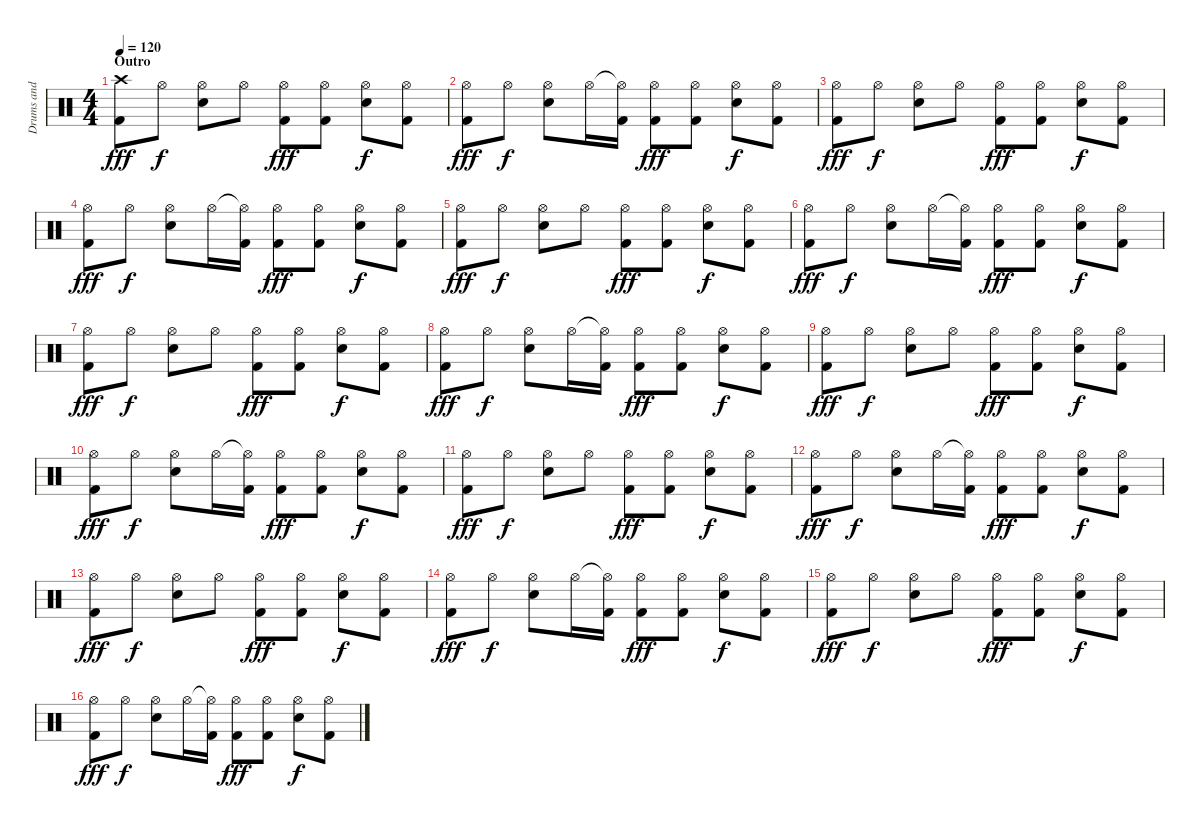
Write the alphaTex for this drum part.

\track ("Drums and Percussion" "Drums and ") {instrument percussion}
\staff {score}
\articulation defaults
\ts (4 4)
\section ("" "Outro")
\tempo 120
\clef neutral
\ks c
("Crash high (hit)" "Kick (hit) 2").8{dy fff} "Hi-Hat (open)".8{dy f} ("Hi-Hat (open)" "Snare (hit) 2").8 "Hi-Hat (open)".8 ("Hi-Hat (open)" "Kick (hit) 2").8{dy fff} ("Hi-Hat (open)" "Kick (hit) 2").8 ("Hi-Hat (open)" "Snare (hit) 2").8{dy f} ("Hi-Hat (open)" "Kick (hit) 2").8 |
("Hi-Hat (open)" "Kick (hit) 2").8{dy fff} "Hi-Hat (open)".8{dy f} ("Hi-Hat (open)" "Snare (hit) 2").8 "Hi-Hat (open)".16 ("Hi-Hat (open)"{t} "Kick (hit) 2").16 ("Hi-Hat (open)" "Kick (hit) 2").8{dy fff} ("Hi-Hat (open)" "Kick (hit) 2").8 ("Hi-Hat (open)" "Snare (hit) 2").8{dy f} ("Hi-Hat (open)" "Kick (hit) 2").8 |
("Hi-Hat (open)" "Kick (hit) 2").8{dy fff} "Hi-Hat (open)".8{dy f} ("Hi-Hat (open)" "Snare (hit) 2").8 "Hi-Hat (open)".8 ("Hi-Hat (open)" "Kick (hit) 2").8{dy fff} ("Hi-Hat (open)" "Kick (hit) 2").8 ("Hi-Hat (open)" "Snare (hit) 2").8{dy f} ("Hi-Hat (open)" "Kick (hit) 2").8 |
("Hi-Hat (open)" "Kick (hit) 2").8{dy fff} "Hi-Hat (open)".8{dy f} ("Hi-Hat (open)" "Snare (hit) 2").8 "Hi-Hat (open)".16 ("Hi-Hat (open)"{t} "Kick (hit) 2").16 ("Hi-Hat (open)" "Kick (hit) 2").8{dy fff} ("Hi-Hat (open)" "Kick (hit) 2").8 ("Hi-Hat (open)" "Snare (hit) 2").8{dy f} ("Hi-Hat (open)" "Kick (hit) 2").8 |
("Hi-Hat (open)" "Kick (hit) 2").8{dy fff} "Hi-Hat (open)".8{dy f} ("Hi-Hat (open)" "Snare (hit) 2").8 "Hi-Hat (open)".8 ("Hi-Hat (open)" "Kick (hit) 2").8{dy fff} ("Hi-Hat (open)" "Kick (hit) 2").8 ("Hi-Hat (open)" "Snare (hit) 2").8{dy f} ("Hi-Hat (open)" "Kick (hit) 2").8 |
("Hi-Hat (open)" "Kick (hit) 2").8{dy fff} "Hi-Hat (open)".8{dy f} ("Hi-Hat (open)" "Snare (hit) 2").8 "Hi-Hat (open)".16 ("Hi-Hat (open)"{t} "Kick (hit) 2").16 ("Hi-Hat (open)" "Kick (hit) 2").8{dy fff} ("Hi-Hat (open)" "Kick (hit) 2").8 ("Hi-Hat (open)" "Snare (hit) 2").8{dy f} ("Hi-Hat (open)" "Kick (hit) 2").8 |
("Hi-Hat (open)" "Kick (hit) 2").8{dy fff} "Hi-Hat (open)".8{dy f} ("Hi-Hat (open)" "Snare (hit) 2").8 "Hi-Hat (open)".8 ("Hi-Hat (open)" "Kick (hit) 2").8{dy fff} ("Hi-Hat (open)" "Kick (hit) 2").8 ("Hi-Hat (open)" "Snare (hit) 2").8{dy f} ("Hi-Hat (open)" "Kick (hit) 2").8 |
("Hi-Hat (open)" "Kick (hit) 2").8{dy fff} "Hi-Hat (open)".8{dy f} ("Hi-Hat (open)" "Snare (hit) 2").8 "Hi-Hat (open)".16 ("Hi-Hat (open)"{t} "Kick (hit) 2").16 ("Hi-Hat (open)" "Kick (hit) 2").8{dy fff} ("Hi-Hat (open)" "Kick (hit) 2").8 ("Hi-Hat (open)" "Snare (hit) 2").8{dy f} ("Hi-Hat (open)" "Kick (hit) 2").8 |
("Hi-Hat (open)" "Kick (hit) 2").8{dy fff} "Hi-Hat (open)".8{dy f} ("Hi-Hat (open)" "Snare (hit) 2").8 "Hi-Hat (open)".8 ("Hi-Hat (open)" "Kick (hit) 2").8{dy fff} ("Hi-Hat (open)" "Kick (hit) 2").8 ("Hi-Hat (open)" "Snare (hit) 2").8{dy f} ("Hi-Hat (open)" "Kick (hit) 2").8 |
("Hi-Hat (open)" "Kick (hit) 2").8{dy fff} "Hi-Hat (open)".8{dy f} ("Hi-Hat (open)" "Snare (hit) 2").8 "Hi-Hat (open)".16 ("Hi-Hat (open)"{t} "Kick (hit) 2").16 ("Hi-Hat (open)" "Kick (hit) 2").8{dy fff} ("Hi-Hat (open)" "Kick (hit) 2").8 ("Hi-Hat (open)" "Snare (hit) 2").8{dy f} ("Hi-Hat (open)" "Kick (hit) 2").8 |
("Hi-Hat (open)" "Kick (hit) 2").8{dy fff} "Hi-Hat (open)".8{dy f} ("Hi-Hat (open)" "Snare (hit) 2").8 "Hi-Hat (open)".8 ("Hi-Hat (open)" "Kick (hit) 2").8{dy fff} ("Hi-Hat (open)" "Kick (hit) 2").8 ("Hi-Hat (open)" "Snare (hit) 2").8{dy f} ("Hi-Hat (open)" "Kick (hit) 2").8 |
("Hi-Hat (open)" "Kick (hit) 2").8{dy fff} "Hi-Hat (open)".8{dy f} ("Hi-Hat (open)" "Snare (hit) 2").8 "Hi-Hat (open)".16 ("Hi-Hat (open)"{t} "Kick (hit) 2").16 ("Hi-Hat (open)" "Kick (hit) 2").8{dy fff} ("Hi-Hat (open)" "Kick (hit) 2").8 ("Hi-Hat (open)" "Snare (hit) 2").8{dy f} ("Hi-Hat (open)" "Kick (hit) 2").8 |
("Hi-Hat (open)" "Kick (hit) 2").8{dy fff} "Hi-Hat (open)".8{dy f} ("Hi-Hat (open)" "Snare (hit) 2").8 "Hi-Hat (open)".8 ("Hi-Hat (open)" "Kick (hit) 2").8{dy fff} ("Hi-Hat (open)" "Kick (hit) 2").8 ("Hi-Hat (open)" "Snare (hit) 2").8{dy f} ("Hi-Hat (open)" "Kick (hit) 2").8 |
("Hi-Hat (open)" "Kick (hit) 2").8{dy fff} "Hi-Hat (open)".8{dy f} ("Hi-Hat (open)" "Snare (hit) 2").8 "Hi-Hat (open)".16 ("Hi-Hat (open)"{t} "Kick (hit) 2").16 ("Hi-Hat (open)" "Kick (hit) 2").8{dy fff} ("Hi-Hat (open)" "Kick (hit) 2").8 ("Hi-Hat (open)" "Snare (hit) 2").8{dy f} ("Hi-Hat (open)" "Kick (hit) 2").8 |
("Hi-Hat (open)" "Kick (hit) 2").8{dy fff} "Hi-Hat (open)".8{dy f} ("Hi-Hat (open)" "Snare (hit) 2").8 "Hi-Hat (open)".8 ("Hi-Hat (open)" "Kick (hit) 2").8{dy fff} ("Hi-Hat (open)" "Kick (hit) 2").8 ("Hi-Hat (open)" "Snare (hit) 2").8{dy f} ("Hi-Hat (open)" "Kick (hit) 2").8 |
("Hi-Hat (open)" "Kick (hit) 2").8{dy fff} "Hi-Hat (open)".8{dy f} ("Hi-Hat (open)" "Snare (hit) 2").8 "Hi-Hat (open)".16 ("Hi-Hat (open)"{t} "Kick (hit) 2").16 ("Hi-Hat (open)" "Kick (hit) 2").8{dy fff} ("Hi-Hat (open)" "Kick (hit) 2").8 ("Hi-Hat (open)" "Snare (hit) 2").8{dy f} ("Hi-Hat (open)" "Kick (hit) 2").8
